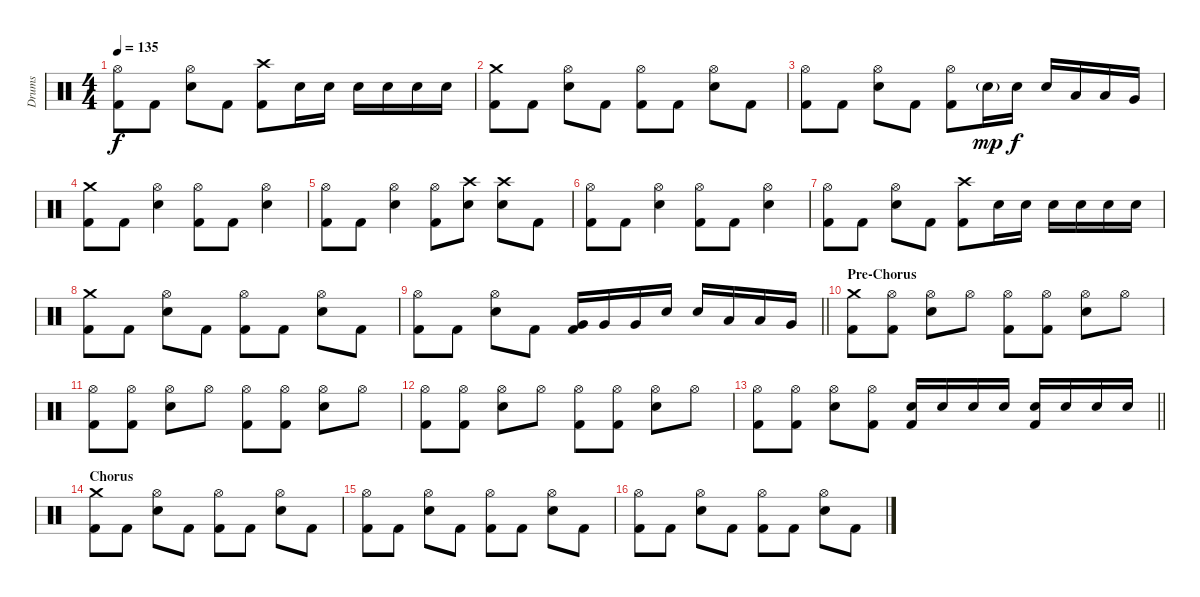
\track ("Drums" "Drums") {instrument percussion}
\staff {score}
\articulation defaults
\ts (4 4)
\tempo 135
\clef neutral
\ks c
("Hi-Hat (open)" "Kick (hit) 2").8{dy f} "Kick (hit) 2".8 ("Hi-Hat (open)" "Electric Snare (hit)").8 "Kick (hit) 2".8 ("Crash high (hit)" "Kick (hit) 2").8 "Electric Snare (hit)".16 "Electric Snare (hit)".16 "Electric Snare (hit)".16 "Electric Snare (hit)".16 "Electric Snare (hit)".16 "Electric Snare (hit)".16 |
("Crash medium (hit)" "Kick (hit) 2").8 "Kick (hit) 2".8 ("Hi-Hat (open)" "Electric Snare (hit)").8 "Kick (hit) 2".8 ("Hi-Hat (open)" "Kick (hit) 2").8 "Kick (hit) 2".8 ("Hi-Hat (open)" "Electric Snare (hit)").8 "Kick (hit) 2".8 |
("Hi-Hat (open)" "Kick (hit) 2").8 "Kick (hit) 2".8 ("Hi-Hat (open)" "Electric Snare (hit)").8 "Kick (hit) 2".8 ("Hi-Hat (open)" "Kick (hit) 2").8 "Electric Snare (hit)"{g}.16{dy mp} "Electric Snare (hit)".16{dy f} "Electric Snare (hit)".16 "Low Tom (hit)".16 "Low Tom (hit)".16 "Very Low Tom (hit)".16 |
("Crash medium (hit)" "Kick (hit) 2").8 "Kick (hit) 2".8 ("Hi-Hat (open)" "Electric Snare (hit)").4 ("Hi-Hat (open)" "Kick (hit) 2").8 "Kick (hit) 2".8 ("Hi-Hat (open)" "Electric Snare (hit)").4 |
("Hi-Hat (open)" "Kick (hit) 2").8 "Kick (hit) 2".8 ("Hi-Hat (open)" "Electric Snare (hit)").4 ("Hi-Hat (open)" "Kick (hit) 2").8 ("Crash high (hit)" "Electric Snare (hit)").8 ("Crash high (hit)" "Electric Snare (hit)").8 "Kick (hit) 2".8 |
("Hi-Hat (open)" "Kick (hit) 2").8 "Kick (hit) 2".8 ("Hi-Hat (open)" "Electric Snare (hit)").4 ("Hi-Hat (open)" "Kick (hit) 2").8 "Kick (hit) 2".8 ("Hi-Hat (open)" "Electric Snare (hit)").4 |
("Hi-Hat (open)" "Kick (hit) 2").8 "Kick (hit) 2".8 ("Hi-Hat (open)" "Electric Snare (hit)").8 "Kick (hit) 2".8 ("Crash high (hit)" "Kick (hit) 2").8 "Electric Snare (hit)".16 "Electric Snare (hit)".16 "Electric Snare (hit)".16 "Electric Snare (hit)".16 "Electric Snare (hit)".16 "Electric Snare (hit)".16 |
("Crash medium (hit)" "Kick (hit) 2").8 "Kick (hit) 2".8 ("Hi-Hat (open)" "Electric Snare (hit)").8 "Kick (hit) 2".8 ("Hi-Hat (open)" "Kick (hit) 2").8 "Kick (hit) 2".8 ("Hi-Hat (open)" "Electric Snare (hit)").8 "Kick (hit) 2".8 |
\barLineRight lightlight
("Hi-Hat (open)" "Kick (hit) 2").8 "Kick (hit) 2".8 ("Hi-Hat (open)" "Electric Snare (hit)").8 "Kick (hit) 2".8 ("Very Low Tom (hit)" "Kick (hit) 2").16 "Very Low Tom (hit)".16 "Very Low Tom (hit)".16 "Electric Snare (hit)".16 "Electric Snare (hit)".16 "Low Tom (hit)".16 "Low Tom (hit)".16 "Very Low Tom (hit)".16 |
\section ("" "Pre-Chorus")
("Crash medium (hit)" "Kick (hit) 2").8 ("Hi-Hat (open)" "Kick (hit) 2").8 ("Hi-Hat (open)" "Electric Snare (hit)").8 "Hi-Hat (open)".8 ("Hi-Hat (open)" "Kick (hit) 2").8 ("Hi-Hat (open)" "Kick (hit) 2").8 ("Hi-Hat (open)" "Electric Snare (hit)").8 "Hi-Hat (open)".8 |
("Hi-Hat (open)" "Kick (hit) 2").8 ("Hi-Hat (open)" "Kick (hit) 2").8 ("Hi-Hat (open)" "Electric Snare (hit)").8 "Hi-Hat (open)".8 ("Hi-Hat (open)" "Kick (hit) 2").8 ("Hi-Hat (open)" "Kick (hit) 2").8 ("Hi-Hat (open)" "Electric Snare (hit)").8 "Hi-Hat (open)".8 |
("Hi-Hat (open)" "Kick (hit) 2").8 ("Hi-Hat (open)" "Kick (hit) 2").8 ("Hi-Hat (open)" "Electric Snare (hit)").8 "Hi-Hat (open)".8 ("Hi-Hat (open)" "Kick (hit) 2").8 ("Hi-Hat (open)" "Kick (hit) 2").8 ("Hi-Hat (open)" "Electric Snare (hit)").8 "Hi-Hat (open)".8 |
\barLineRight lightlight
("Hi-Hat (open)" "Kick (hit) 2").8 ("Hi-Hat (open)" "Kick (hit) 2").8 ("Hi-Hat (open)" "Electric Snare (hit)").8 ("Hi-Hat (open)" "Kick (hit) 2").8 ("Electric Snare (hit)" "Kick (hit) 2").16 "Electric Snare (hit)".16 "Electric Snare (hit)".16 "Electric Snare (hit)".16 ("Electric Snare (hit)" "Kick (hit) 2").16 "Electric Snare (hit)".16 "Electric Snare (hit)".16 "Electric Snare (hit)".16 |
\section ("" "Chorus")
("Crash medium (hit)" "Kick (hit) 2").8 "Kick (hit) 2".8 ("Hi-Hat (open)" "Electric Snare (hit)").8 "Kick (hit) 2".8 ("Hi-Hat (open)" "Kick (hit) 2").8 "Kick (hit) 2".8 ("Hi-Hat (open)" "Electric Snare (hit)").8 "Kick (hit) 2".8 |
("Hi-Hat (open)" "Kick (hit) 2").8 "Kick (hit) 2".8 ("Hi-Hat (open)" "Electric Snare (hit)").8 "Kick (hit) 2".8 ("Hi-Hat (open)" "Kick (hit) 2").8 "Kick (hit) 2".8 ("Hi-Hat (open)" "Electric Snare (hit)").8 "Kick (hit) 2".8 |
("Hi-Hat (open)" "Kick (hit) 2").8 "Kick (hit) 2".8 ("Hi-Hat (open)" "Electric Snare (hit)").8 "Kick (hit) 2".8 ("Hi-Hat (open)" "Kick (hit) 2").8 "Kick (hit) 2".8 ("Hi-Hat (open)" "Electric Snare (hit)").8 "Kick (hit) 2".8
